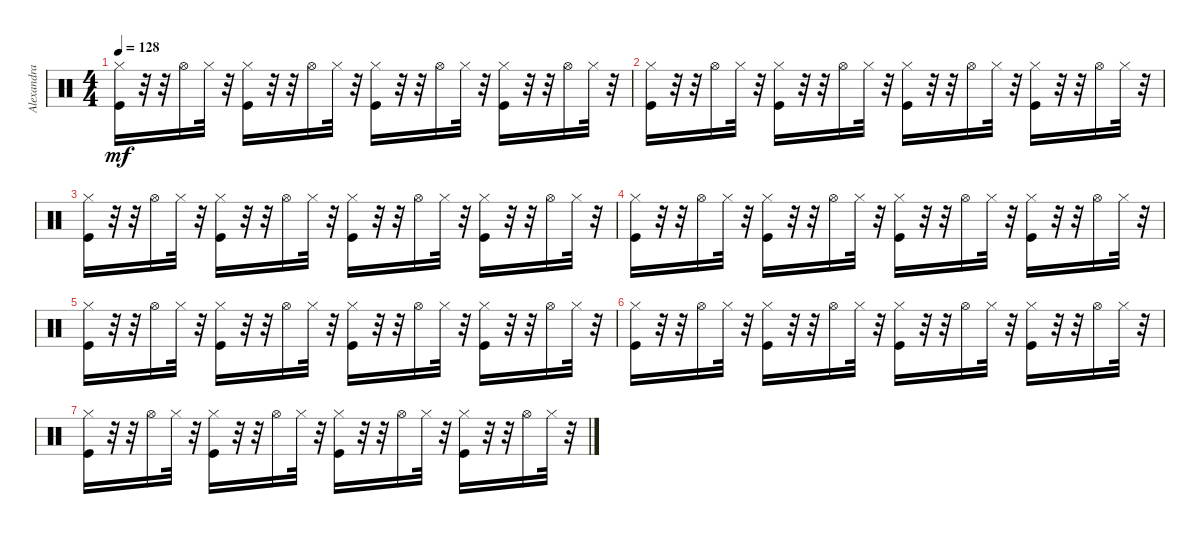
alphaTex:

\track ("Alexandra Stan - Mr Saxobeat" "Alexandra ") {instrument percussion}
\staff {score}
\articulation defaults
\ts (4 4)
\tempo 128
\clef neutral
\ks c
("Kick (hit)" "Hi-Hat (closed)").16{dy mf} r.32 r.32 "Hi-Hat (open)".16 "Hi-Hat (closed)".32 r.32 ("Kick (hit)" "Hi-Hat (closed)").16 r.32 r.32 "Hi-Hat (open)".16 "Hi-Hat (closed)".32 r.32 ("Kick (hit)" "Hi-Hat (closed)").16 r.32 r.32 "Hi-Hat (open)".16 "Hi-Hat (closed)".32 r.32 ("Kick (hit)" "Hi-Hat (closed)").16 r.32 r.32 "Hi-Hat (open)".16 "Hi-Hat (closed)".32 r.32 |
("Kick (hit)" "Hi-Hat (closed)").16 r.32 r.32 "Hi-Hat (open)".16 "Hi-Hat (closed)".32 r.32 ("Kick (hit)" "Hi-Hat (closed)").16 r.32 r.32 "Hi-Hat (open)".16 "Hi-Hat (closed)".32 r.32 ("Kick (hit)" "Hi-Hat (closed)").16 r.32 r.32 "Hi-Hat (open)".16 "Hi-Hat (closed)".32 r.32 ("Kick (hit)" "Hi-Hat (closed)").16 r.32 r.32 "Hi-Hat (open)".16 "Hi-Hat (closed)".32 r.32 |
("Kick (hit)" "Hi-Hat (closed)").16 r.32 r.32 "Hi-Hat (open)".16 "Hi-Hat (closed)".32 r.32 ("Kick (hit)" "Hi-Hat (closed)").16 r.32 r.32 "Hi-Hat (open)".16 "Hi-Hat (closed)".32 r.32 ("Kick (hit)" "Hi-Hat (closed)").16 r.32 r.32 "Hi-Hat (open)".16 "Hi-Hat (closed)".32 r.32 ("Kick (hit)" "Hi-Hat (closed)").16 r.32 r.32 "Hi-Hat (open)".16 "Hi-Hat (closed)".32 r.32 |
("Kick (hit)" "Hi-Hat (closed)").16 r.32 r.32 "Hi-Hat (open)".16 "Hi-Hat (closed)".32 r.32 ("Kick (hit)" "Hi-Hat (closed)").16 r.32 r.32 "Hi-Hat (open)".16 "Hi-Hat (closed)".32 r.32 ("Kick (hit)" "Hi-Hat (closed)").16 r.32 r.32 "Hi-Hat (open)".16 "Hi-Hat (closed)".32 r.32 ("Kick (hit)" "Hi-Hat (closed)").16 r.32 r.32 "Hi-Hat (open)".16 "Hi-Hat (closed)".32 r.32 |
("Kick (hit)" "Hi-Hat (closed)").16 r.32 r.32 "Hi-Hat (open)".16 "Hi-Hat (closed)".32 r.32 ("Kick (hit)" "Hi-Hat (closed)").16 r.32 r.32 "Hi-Hat (open)".16 "Hi-Hat (closed)".32 r.32 ("Kick (hit)" "Hi-Hat (closed)").16 r.32 r.32 "Hi-Hat (open)".16 "Hi-Hat (closed)".32 r.32 ("Kick (hit)" "Hi-Hat (closed)").16 r.32 r.32 "Hi-Hat (open)".16 "Hi-Hat (closed)".32 r.32 |
("Kick (hit)" "Hi-Hat (closed)").16 r.32 r.32 "Hi-Hat (open)".16 "Hi-Hat (closed)".32 r.32 ("Kick (hit)" "Hi-Hat (closed)").16 r.32 r.32 "Hi-Hat (open)".16 "Hi-Hat (closed)".32 r.32 ("Kick (hit)" "Hi-Hat (closed)").16 r.32 r.32 "Hi-Hat (open)".16 "Hi-Hat (closed)".32 r.32 ("Kick (hit)" "Hi-Hat (closed)").16 r.32 r.32 "Hi-Hat (open)".16 "Hi-Hat (closed)".32 r.32 |
("Kick (hit)" "Hi-Hat (closed)").16 r.32 r.32 "Hi-Hat (open)".16 "Hi-Hat (closed)".32 r.32 ("Kick (hit)" "Hi-Hat (closed)").16 r.32 r.32 "Hi-Hat (open)".16 "Hi-Hat (closed)".32 r.32 ("Kick (hit)" "Hi-Hat (closed)").16 r.32 r.32 "Hi-Hat (open)".16 "Hi-Hat (closed)".32 r.32 ("Kick (hit)" "Hi-Hat (closed)").16 r.32 r.32 "Hi-Hat (open)".16 "Hi-Hat (closed)".32 r.32
